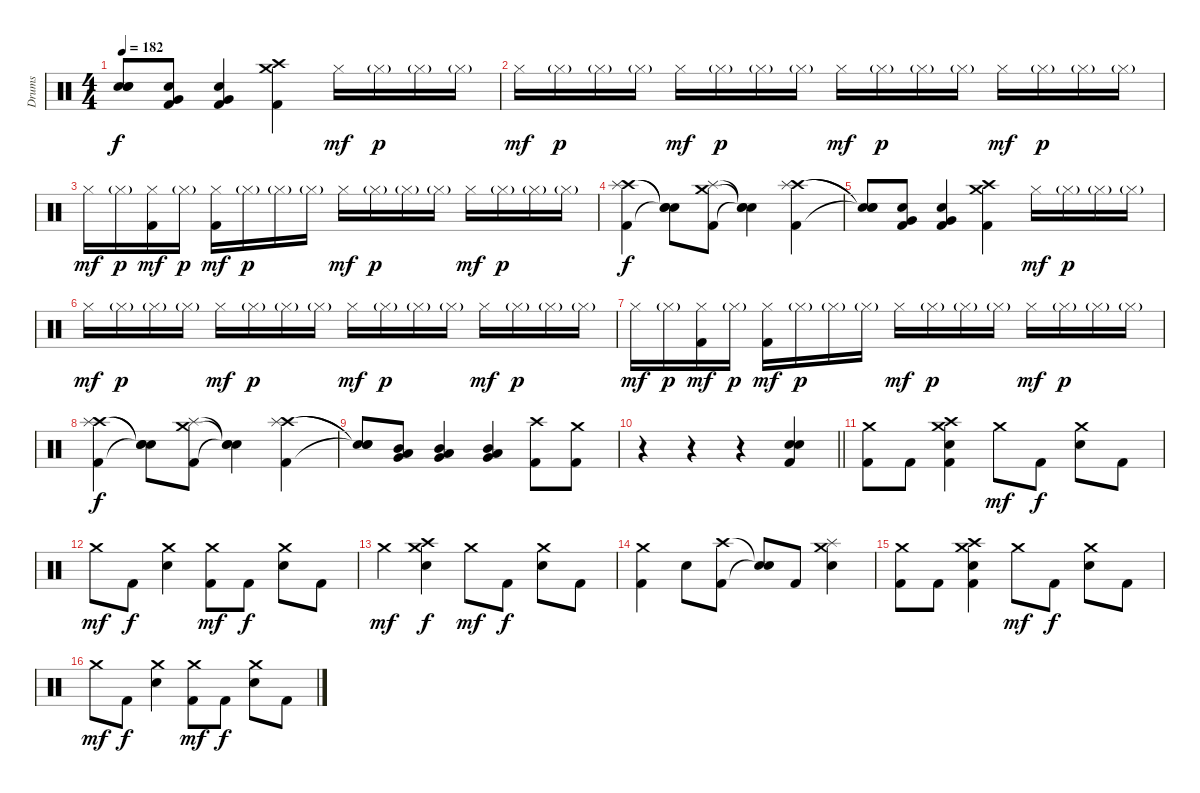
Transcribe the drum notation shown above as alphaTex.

\track ("Drums" "Drums") {instrument percussion}
\staff {score}
\articulation defaults
\ts (4 4)
\tempo 182
\clef neutral
\ks c
("Snare (hit)"{t} "Snare (hit)"{t} "Snare (hit)"{t}).8{dy f} ("Very Low Tom (hit)" "Electric Snare (hit)" "Kick (hit) 2").8 ("Very Low Tom (hit)" "Electric Snare (hit)" "Kick (hit) 2").4 ("Crash high (hit)" "Crash medium (hit)" "Kick (hit) 2").4 "Hi-Hat (closed)".16{dy mf} "Hi-Hat (closed)"{g}.16{dy p} "Hi-Hat (closed)"{g}.16 "Hi-Hat (closed)"{g}.16 |
"Hi-Hat (closed)".16{dy mf} "Hi-Hat (closed)"{g}.16{dy p} "Hi-Hat (closed)"{g}.16 "Hi-Hat (closed)"{g}.16 "Hi-Hat (closed)".16{dy mf} "Hi-Hat (closed)"{g}.16{dy p} "Hi-Hat (closed)"{g}.16 "Hi-Hat (closed)"{g}.16 "Hi-Hat (closed)".16{dy mf} "Hi-Hat (closed)"{g}.16{dy p} "Hi-Hat (closed)"{g}.16 "Hi-Hat (closed)"{g}.16 "Hi-Hat (closed)".16{dy mf} "Hi-Hat (closed)"{g}.16{dy p} "Hi-Hat (closed)"{g}.16 "Hi-Hat (closed)"{g}.16 |
"Hi-Hat (closed)".16{dy mf} "Hi-Hat (closed)"{g}.16{dy p} ("Hi-Hat (closed)" "Kick (hit) 2").16{dy mf} "Hi-Hat (closed)"{g}.16{dy p} ("Hi-Hat (closed)" "Kick (hit) 2").16{dy mf} "Hi-Hat (closed)"{g}.16{dy p} "Hi-Hat (closed)"{g}.16 "Hi-Hat (closed)"{g}.16 "Hi-Hat (closed)".16{dy mf} "Hi-Hat (closed)"{g}.16{dy p} "Hi-Hat (closed)"{g}.16 "Hi-Hat (closed)"{g}.16 "Hi-Hat (closed)".16{dy mf} "Hi-Hat (closed)"{g}.16{dy p} "Hi-Hat (closed)"{g}.16 "Hi-Hat (closed)"{g}.16 |
("Crash high (hit)" "Splash (hit)" "Kick (hit) 2").4{dy f} ("Snare (hit)"{t} "Snare (hit)"{t} "Snare (hit)"{t}).8 ("Crash medium (hit)" "Splash (hit)" "Kick (hit) 2").8 ("Snare (hit)"{t} "Snare (hit)"{t} "Snare (hit)"{t}).4 ("Crash high (hit)" "Splash (hit)" "Kick (hit) 2").4 |
("Snare (hit)"{t} "Snare (hit)"{t} "Snare (hit)"{t}).8 ("Very Low Tom (hit)" "Electric Snare (hit)" "Kick (hit) 2").8 ("Very Low Tom (hit)" "Electric Snare (hit)" "Kick (hit) 2").4 ("Crash high (hit)" "Crash medium (hit)" "Kick (hit) 2").4 "Hi-Hat (closed)".16{dy mf} "Hi-Hat (closed)"{g}.16{dy p} "Hi-Hat (closed)"{g}.16 "Hi-Hat (closed)"{g}.16 |
"Hi-Hat (closed)".16{dy mf} "Hi-Hat (closed)"{g}.16{dy p} "Hi-Hat (closed)"{g}.16 "Hi-Hat (closed)"{g}.16 "Hi-Hat (closed)".16{dy mf} "Hi-Hat (closed)"{g}.16{dy p} "Hi-Hat (closed)"{g}.16 "Hi-Hat (closed)"{g}.16 "Hi-Hat (closed)".16{dy mf} "Hi-Hat (closed)"{g}.16{dy p} "Hi-Hat (closed)"{g}.16 "Hi-Hat (closed)"{g}.16 "Hi-Hat (closed)".16{dy mf} "Hi-Hat (closed)"{g}.16{dy p} "Hi-Hat (closed)"{g}.16 "Hi-Hat (closed)"{g}.16 |
"Hi-Hat (closed)".16{dy mf} "Hi-Hat (closed)"{g}.16{dy p} ("Hi-Hat (closed)" "Kick (hit) 2").16{dy mf} "Hi-Hat (closed)"{g}.16{dy p} ("Hi-Hat (closed)" "Kick (hit) 2").16{dy mf} "Hi-Hat (closed)"{g}.16{dy p} "Hi-Hat (closed)"{g}.16 "Hi-Hat (closed)"{g}.16 "Hi-Hat (closed)".16{dy mf} "Hi-Hat (closed)"{g}.16{dy p} "Hi-Hat (closed)"{g}.16 "Hi-Hat (closed)"{g}.16 "Hi-Hat (closed)".16{dy mf} "Hi-Hat (closed)"{g}.16{dy p} "Hi-Hat (closed)"{g}.16 "Hi-Hat (closed)"{g}.16 |
("Crash high (hit)" "Splash (hit)" "Kick (hit) 2").4{dy f} ("Snare (hit)"{t} "Snare (hit)"{t} "Snare (hit)"{t}).8 ("Crash medium (hit)" "Splash (hit)" "Kick (hit) 2").8 ("Snare (hit)"{t} "Snare (hit)"{t} "Snare (hit)"{t}).4 ("Crash high (hit)" "Splash (hit)" "Kick (hit) 2").4 |
("Snare (hit)"{t} "Snare (hit)"{t} "Snare (hit)"{t}).8 ("Mid Tom (hit)" "Low Tom (hit)" "Very Low Tom (hit)").8 ("Mid Tom (hit)" "Low Tom (hit)" "Very Low Tom (hit)").4 ("Mid Tom (hit)" "Low Tom (hit)" "Very Low Tom (hit)").4 ("Crash high (hit)" "Kick (hit) 2").8 ("Crash medium (hit)" "Kick (hit) 2").8 |
\barLineRight lightlight
r.4 r.4 r.4 ("Snare (hit) 2" "Electric Snare (hit)" "Kick (hit) 2").4 |
("Crash medium (hit)" "Kick (hit) 2").8 "Kick (hit) 2".8 ("Crash medium (hit)" "Crash high (hit)" "Electric Snare (hit)" "Kick (hit) 2").4 "Crash medium (hit)".8{dy mf} "Kick (hit) 2".8{dy f} ("Crash medium (hit)" "Electric Snare (hit)").8 "Kick (hit) 2".8 |
"Crash medium (hit)".8{dy mf} "Kick (hit) 2".8{dy f} ("Crash medium (hit)" "Electric Snare (hit)").4 ("Crash medium (hit)" "Kick (hit) 2").8{dy mf} "Kick (hit) 2".8{dy f} ("Crash medium (hit)" "Electric Snare (hit)").8 "Kick (hit) 2".8 |
"Crash medium (hit)".4{dy mf} ("Crash medium (hit)" "Crash high (hit)" "Electric Snare (hit)").4{dy f} "Crash medium (hit)".8{dy mf} "Kick (hit) 2".8{dy f} ("Crash medium (hit)" "Electric Snare (hit)").8 "Kick (hit) 2".8 |
("Crash medium (hit)" "Kick (hit) 2").4 "Electric Snare (hit)".8 ("Crash high (hit)" "Kick (hit) 2").8 ("Snare (hit)"{t} "Snare (hit)"{t}).8 "Kick (hit) 2".8 ("Crash medium (hit)" "Splash (hit)" "Electric Snare (hit)").4 |
("Crash medium (hit)" "Kick (hit) 2").8 "Kick (hit) 2".8 ("Crash medium (hit)" "Crash high (hit)" "Electric Snare (hit)" "Kick (hit) 2").4 "Crash medium (hit)".8{dy mf} "Kick (hit) 2".8{dy f} ("Crash medium (hit)" "Electric Snare (hit)").8 "Kick (hit) 2".8 |
"Crash medium (hit)".8{dy mf} "Kick (hit) 2".8{dy f} ("Crash medium (hit)" "Electric Snare (hit)").4 ("Crash medium (hit)" "Kick (hit) 2").8{dy mf} "Kick (hit) 2".8{dy f} ("Crash medium (hit)" "Electric Snare (hit)").8 "Kick (hit) 2".8
